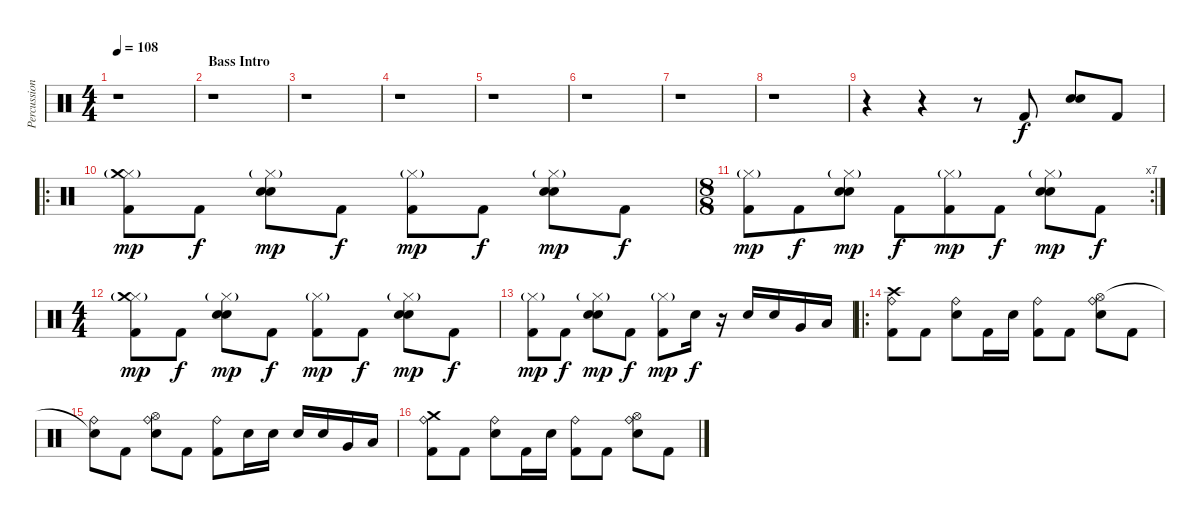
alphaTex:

\track ("Percussion" "Percussion") {instrument percussion}
\staff {score}
\articulation defaults
\ts (4 4)
\tempo 108
\clef neutral
\ks c
r.1{dy f} |
\section ("" "Bass Intro")
r.1 |
r.1 |
r.1 |
r.1 |
r.1 |
r.1 |
r.1 |
r.4 r.4 r.8 "Kick (hit) 2".8 ("Electric Snare (hit)" "Snare (hit) 2").8 "Kick (hit) 2".8 |
\ro
("Hi-Hat (closed)"{g} "Crash medium (hit)" "Kick (hit) 2").8{dy mp} "Kick (hit) 2".8{dy f} ("Hi-Hat (closed)"{g} "Electric Snare (hit)" "Snare (hit) 2").8{dy mp} "Kick (hit) 2".8{dy f} ("Hi-Hat (closed)"{g} "Kick (hit) 2").8{dy mp} "Kick (hit) 2".8{dy f} ("Hi-Hat (closed)"{g} "Electric Snare (hit)" "Snare (hit) 2").8{dy mp} "Kick (hit) 2".8{dy f} |
\rc 7
\ts (8 8)
("Hi-Hat (closed)"{g} "Kick (hit) 2").8{dy mp} "Kick (hit) 2".8{dy f} ("Hi-Hat (closed)"{g} "Electric Snare (hit)" "Snare (hit) 2").8{dy mp} "Kick (hit) 2".8{dy f} ("Hi-Hat (closed)"{g} "Kick (hit) 2").8{dy mp} "Kick (hit) 2".8{dy f} ("Hi-Hat (closed)"{g} "Electric Snare (hit)" "Snare (hit) 2").8{dy mp} "Kick (hit) 2".8{dy f} |
\ts (4 4)
("Hi-Hat (closed)"{g} "Crash medium (hit)" "Kick (hit) 2").8{dy mp} "Kick (hit) 2".8{dy f} ("Hi-Hat (closed)"{g} "Electric Snare (hit)" "Snare (hit) 2").8{dy mp} "Kick (hit) 2".8{dy f} ("Hi-Hat (closed)"{g} "Kick (hit) 2").8{dy mp} "Kick (hit) 2".8{dy f} ("Hi-Hat (closed)"{g} "Electric Snare (hit)" "Snare (hit) 2").8{dy mp} "Kick (hit) 2".8{dy f} |
("Hi-Hat (closed)"{g} "Kick (hit) 2").8{dy mp} "Kick (hit) 2".8{dy f} ("Hi-Hat (closed)"{g} "Snare (hit) 2" "Electric Snare (hit)").8{dy mp} "Kick (hit) 2".8{dy f} ("Hi-Hat (closed)"{g} "Kick (hit) 2").8{dy mp} "Electric Snare (hit)".16{dy f} r.16 "Electric Snare (hit)".16 "Electric Snare (hit)".16 "Very Low Tom (hit)".16 "Low Floor Tom (hit)".16 |
\ro
("Ride (bell)" "Crash high (hit)" "Kick (hit) 2").8 "Kick (hit) 2".8 ("Ride (bell)" "Snare (hit) 2").8 "Kick (hit) 2".16 "Snare (hit) 2".16 ("Ride (bell)" "Kick (hit) 2").8 "Kick (hit) 2".8 ("Ride (bell)" "Hi-Hat (open)" "Snare (hit) 2").8 "Kick (hit) 2".8 |
("Ride (bell)" "Snare (hit)"{t}).8 "Kick (hit) 2".8 ("Ride (bell)" "Hi-Hat (open)" "Snare (hit) 2").8 "Kick (hit) 2".8 ("Ride (bell)" "Kick (hit) 2").8 "Electric Snare (hit)".16 "Electric Snare (hit)".16 "Electric Snare (hit)".16 "Electric Snare (hit)".16 "Very Low Tom (hit)".16 "Low Floor Tom (hit)".16 |
("Ride (bell)" "Crash medium (hit)" "Kick (hit) 2").8 "Kick (hit) 2".8 ("Ride (bell)" "Snare (hit) 2").8 "Kick (hit) 2".16 "Snare (hit) 2".16 ("Ride (bell)" "Kick (hit) 2").8 "Kick (hit) 2".8 ("Ride (bell)" "Hi-Hat (open)" "Snare (hit) 2").8 "Kick (hit) 2".8
